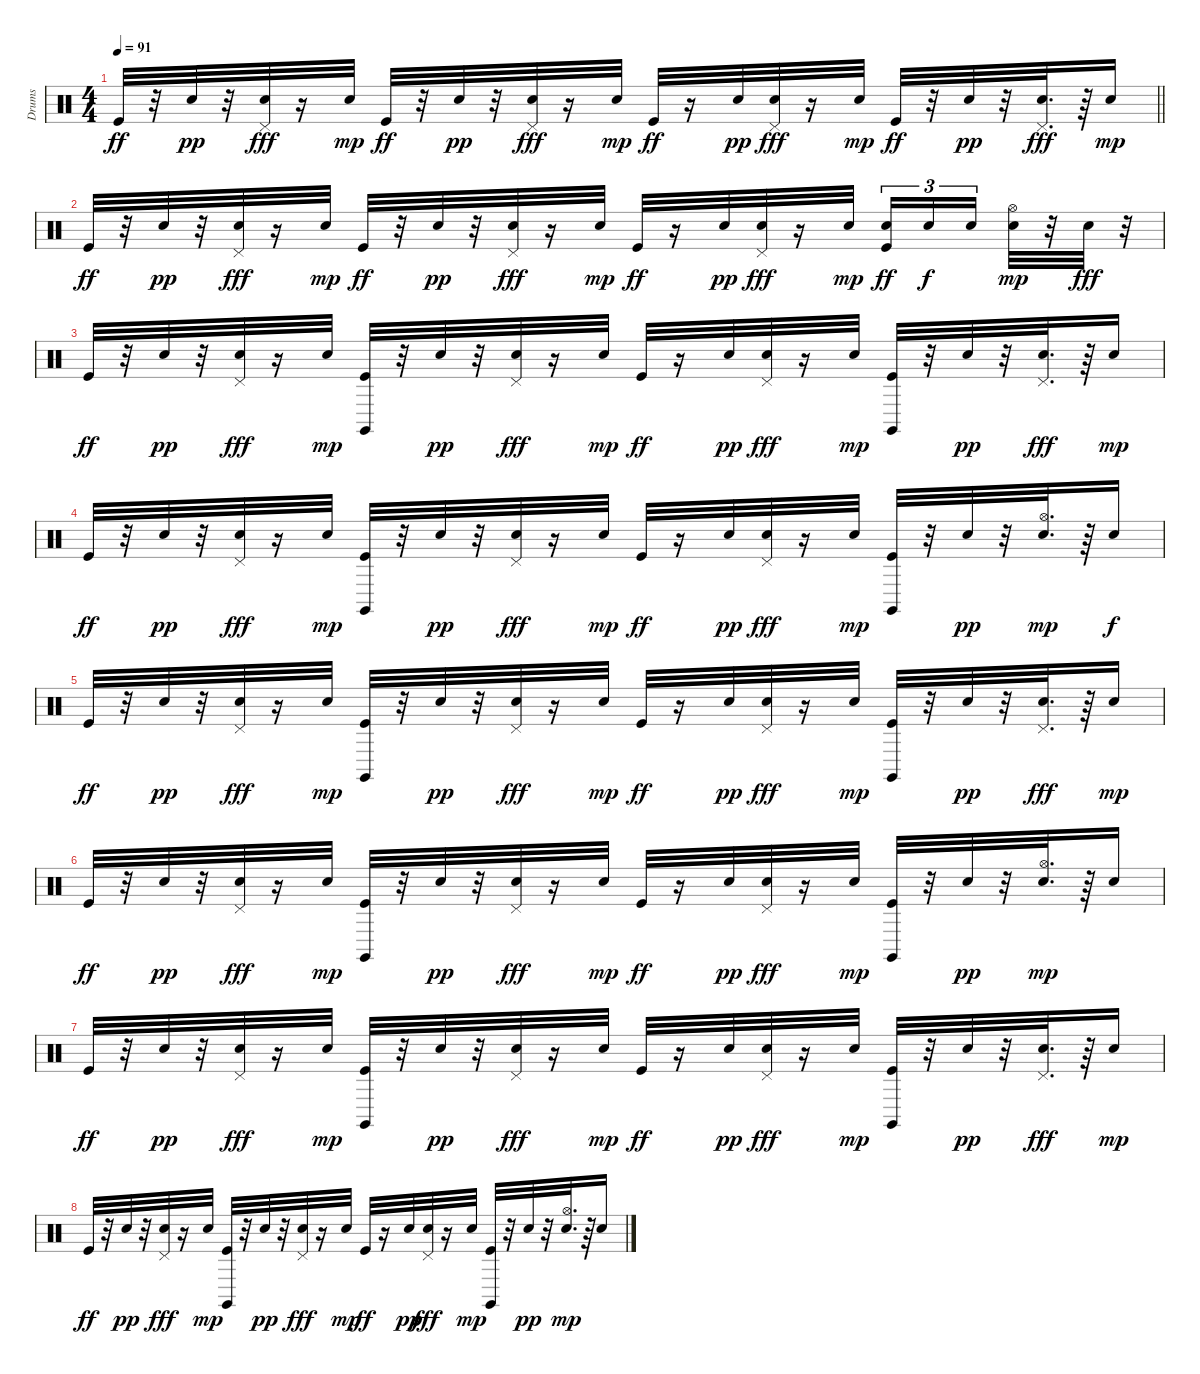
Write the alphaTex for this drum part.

\track ("Drums" "Drums") {instrument percussion}
\staff {score}
\articulation defaults
\ts (4 4)
\tempo 91
\clef neutral
\barLineRight lightlight
\ks c "Kick (hit)".32{dy ff}
r.32 "Snare (hit) 2".32{dy pp} r.32 ("Snare (hit) 2" "Pedal Hi-Hat (hit)").32{dy fff} r.16 "Snare (hit) 2".32{dy mp} "Kick (hit)".32{dy ff} r.32 "Snare (hit) 2".32{dy pp} r.32 ("Snare (hit) 2" "Pedal Hi-Hat (hit)").32{dy fff} r.16 "Snare (hit) 2".32{dy mp} "Kick (hit)".32{dy ff} r.16 "Snare (hit) 2".32{dy pp} ("Snare (hit) 2" "Pedal Hi-Hat (hit)").32{dy fff} r.16 "Snare (hit) 2".32{dy mp} "Kick (hit)".32{dy ff} r.32 "Snare (hit) 2".32{dy pp} r.32 ("Snare (hit) 2" "Pedal Hi-Hat (hit)").32{d dy fff} r.64 "Snare (hit) 2".16{dy mp} |
\section ("" "")
"Kick (hit)".32{dy ff} r.32 "Snare (hit) 2".32{dy pp} r.32 ("Snare (hit) 2" "Pedal Hi-Hat (hit)").32{dy fff} r.16 "Snare (hit) 2".32{dy mp} "Kick (hit)".32{dy ff} r.32 "Snare (hit) 2".32{dy pp} r.32 ("Snare (hit) 2" "Pedal Hi-Hat (hit)").32{dy fff} r.16 "Snare (hit) 2".32{dy mp} "Kick (hit)".32{dy ff} r.16 "Snare (hit) 2".32{dy pp} ("Snare (hit) 2" "Pedal Hi-Hat (hit)").32{dy fff} r.16 "Snare (hit) 2".32{dy mp} ("Kick (hit)" "Snare (hit) 2").16{tu (3 2) dy ff} "Snare (hit) 2".16{tu (3 2) dy f} "Snare (hit) 2".16{tu (3 2) beam splitsecondary} ("Snare (hit) 2" "Hi-Hat (open)").32{dy mp} r.32 "Snare (hit) 2".32{dy fff} r.32 |
"Kick (hit)".32{dy ff} r.32 "Snare (hit) 2".32{dy pp} r.32 ("Snare (hit) 2" "Pedal Hi-Hat (hit)").32{dy fff} r.16 "Snare (hit) 2".32{dy mp} ("Kick (hit)" "Claves (hit)").32 r.32 "Snare (hit) 2".32{dy pp} r.32 ("Snare (hit) 2" "Pedal Hi-Hat (hit)").32{dy fff} r.16 "Snare (hit) 2".32{dy mp} "Kick (hit)".32{dy ff} r.16 "Snare (hit) 2".32{dy pp} ("Snare (hit) 2" "Pedal Hi-Hat (hit)").32{dy fff} r.16 "Snare (hit) 2".32{dy mp} ("Kick (hit)" "Claves (hit)").32 r.32 "Snare (hit) 2".32{dy pp} r.32 ("Snare (hit) 2" "Pedal Hi-Hat (hit)").32{d dy fff} r.64 "Snare (hit) 2".16{dy mp} |
"Kick (hit)".32{dy ff} r.32 "Snare (hit) 2".32{dy pp} r.32 ("Snare (hit) 2" "Pedal Hi-Hat (hit)").32{dy fff} r.16 "Snare (hit) 2".32{dy mp} ("Kick (hit)" "Claves (hit)").32 r.32 "Snare (hit) 2".32{dy pp} r.32 ("Snare (hit) 2" "Pedal Hi-Hat (hit)").32{dy fff} r.16 "Snare (hit) 2".32{dy mp} "Kick (hit)".32{dy ff} r.16 "Snare (hit) 2".32{dy pp} ("Snare (hit) 2" "Pedal Hi-Hat (hit)").32{dy fff} r.16 "Snare (hit) 2".32{dy mp} ("Kick (hit)" "Claves (hit)").32 r.32 "Snare (hit) 2".32{dy pp} r.32 ("Snare (hit) 2" "Hi-Hat (open)").32{d dy mp} r.64 "Snare (hit) 2".16{dy f} |
"Kick (hit)".32{dy ff} r.32 "Snare (hit) 2".32{dy pp} r.32 ("Snare (hit) 2" "Pedal Hi-Hat (hit)").32{dy fff} r.16 "Snare (hit) 2".32{dy mp} ("Kick (hit)" "Claves (hit)").32 r.32 "Snare (hit) 2".32{dy pp} r.32 ("Snare (hit) 2" "Pedal Hi-Hat (hit)").32{dy fff} r.16 "Snare (hit) 2".32{dy mp} "Kick (hit)".32{dy ff} r.16 "Snare (hit) 2".32{dy pp} ("Snare (hit) 2" "Pedal Hi-Hat (hit)").32{dy fff} r.16 "Snare (hit) 2".32{dy mp} ("Kick (hit)" "Claves (hit)").32 r.32 "Snare (hit) 2".32{dy pp} r.32 ("Snare (hit) 2" "Pedal Hi-Hat (hit)").32{d dy fff} r.64 "Snare (hit) 2".16{dy mp} |
"Kick (hit)".32{dy ff} r.32 "Snare (hit) 2".32{dy pp} r.32 ("Snare (hit) 2" "Pedal Hi-Hat (hit)").32{dy fff} r.16 "Snare (hit) 2".32{dy mp} ("Kick (hit)" "Claves (hit)").32 r.32 "Snare (hit) 2".32{dy pp} r.32 ("Snare (hit) 2" "Pedal Hi-Hat (hit)").32{dy fff} r.16 "Snare (hit) 2".32{dy mp} "Kick (hit)".32{dy ff} r.16 "Snare (hit) 2".32{dy pp} ("Snare (hit) 2" "Pedal Hi-Hat (hit)").32{dy fff} r.16 "Snare (hit) 2".32{dy mp} ("Kick (hit)" "Claves (hit)").32 r.32 "Snare (hit) 2".32{dy pp} r.32 ("Snare (hit) 2" "Hi-Hat (open)").32{d dy mp} r.64 "Snare (hit) 2".16 |
"Kick (hit)".32{dy ff} r.32 "Snare (hit) 2".32{dy pp} r.32 ("Snare (hit) 2" "Pedal Hi-Hat (hit)").32{dy fff} r.16 "Snare (hit) 2".32{dy mp} ("Kick (hit)" "Claves (hit)").32 r.32 "Snare (hit) 2".32{dy pp} r.32 ("Snare (hit) 2" "Pedal Hi-Hat (hit)").32{dy fff} r.16 "Snare (hit) 2".32{dy mp} "Kick (hit)".32{dy ff} r.16 "Snare (hit) 2".32{dy pp} ("Snare (hit) 2" "Pedal Hi-Hat (hit)").32{dy fff} r.16 "Snare (hit) 2".32{dy mp} ("Kick (hit)" "Claves (hit)").32 r.32 "Snare (hit) 2".32{dy pp} r.32 ("Snare (hit) 2" "Pedal Hi-Hat (hit)").32{d dy fff} r.64 "Snare (hit) 2".16{dy mp} |
"Kick (hit)".32{dy ff} r.32 "Snare (hit) 2".32{dy pp} r.32 ("Snare (hit) 2" "Pedal Hi-Hat (hit)").32{dy fff} r.16 "Snare (hit) 2".32{dy mp} ("Kick (hit)" "Claves (hit)").32 r.32 "Snare (hit) 2".32{dy pp} r.32 ("Snare (hit) 2" "Pedal Hi-Hat (hit)").32{dy fff} r.16 "Snare (hit) 2".32{dy mp} "Kick (hit)".32{dy ff} r.16 "Snare (hit) 2".32{dy pp} ("Snare (hit) 2" "Pedal Hi-Hat (hit)").32{dy fff} r.16 "Snare (hit) 2".32{dy mp} ("Kick (hit)" "Claves (hit)").32 r.32 "Snare (hit) 2".32{dy pp} r.32 ("Snare (hit) 2" "Hi-Hat (open)").32{d dy mp} r.64 "Snare (hit) 2".16
